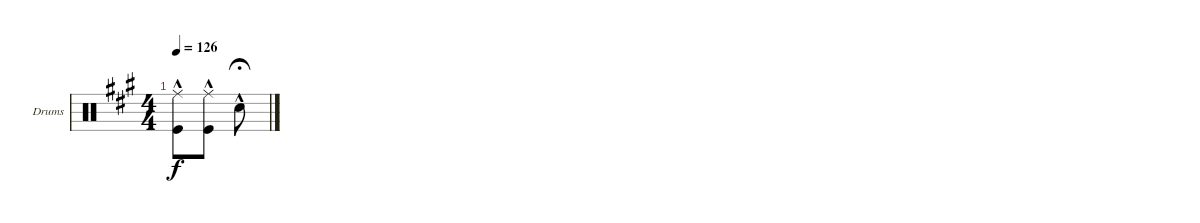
\defaultSystemsLayout 4
\bracketExtendMode groupsimilarinstruments
\firstSystemTrackNameOrientation horizontal
\otherSystemsTrackNameOrientation horizontal
\track ("Drumkit" "Drums") {instrument percussion}
\staff {score}
\articulation defaults
\ts (4 4)
\tempo 126
\clef neutral
\scale
1.05801
\ks a
("Ride (middle)"{hac} "Kick (hit)").8{dy f} ("Kick (hit)"{hac} "Ride (middle)"{hac}).8 "Snare (hit) 2"{hac}.8{fermata (medium 0.6)} |
\scale
0.941992
